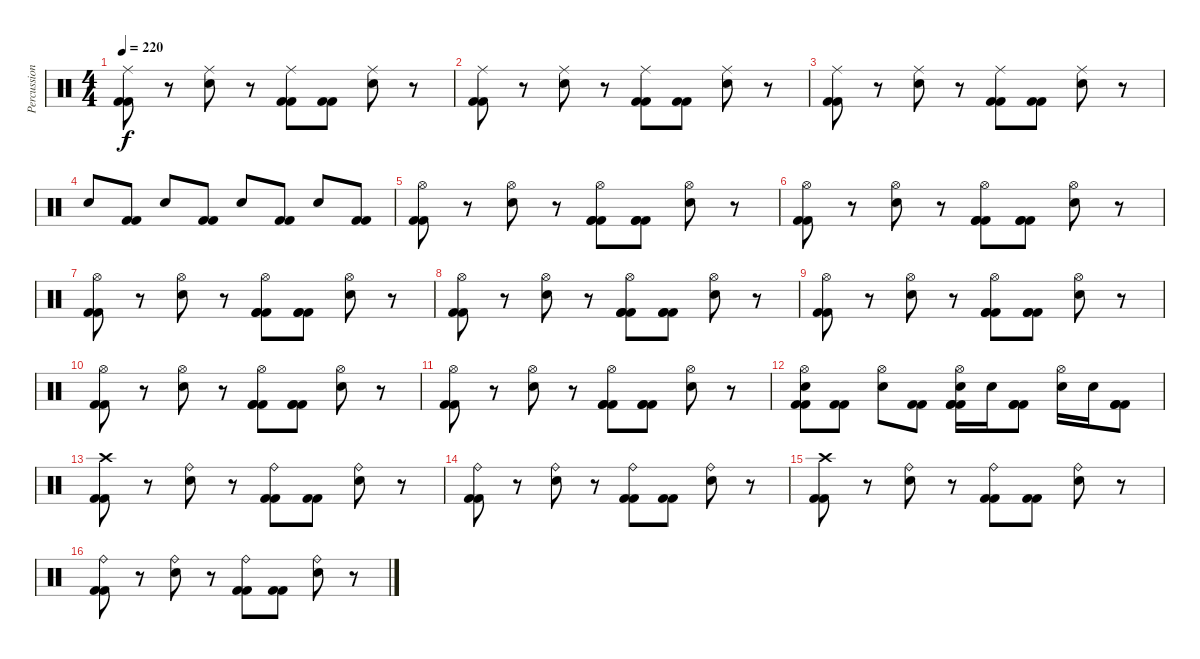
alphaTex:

\track ("Percussion" "Percussion") {instrument percussion}
\staff {score}
\articulation defaults
\ts (4 4)
\tempo 220
\clef neutral
\ks c
("Ride (middle)" "Kick (hit) 2" "Kick (hit) 2").8{dy f} r.8 ("Ride (middle)" "Electric Snare (hit)").8 r.8 ("Ride (middle)" "Kick (hit) 2" "Kick (hit) 2").8 ("Kick (hit) 2" "Kick (hit) 2").8 ("Ride (middle)" "Electric Snare (hit)").8 r.8 |
("Ride (middle)" "Kick (hit) 2" "Kick (hit) 2").8 r.8 ("Ride (middle)" "Electric Snare (hit)").8 r.8 ("Ride (middle)" "Kick (hit) 2" "Kick (hit) 2").8 ("Kick (hit) 2" "Kick (hit) 2").8 ("Ride (middle)" "Electric Snare (hit)").8 r.8 |
("Ride (middle)" "Kick (hit) 2" "Kick (hit) 2").8 r.8 ("Ride (middle)" "Electric Snare (hit)").8 r.8 ("Ride (middle)" "Kick (hit) 2" "Kick (hit) 2").8 ("Kick (hit) 2" "Kick (hit) 2").8 ("Ride (middle)" "Electric Snare (hit)").8 r.8 |
"Electric Snare (hit)".8 ("Kick (hit) 2" "Kick (hit) 2").8 "Electric Snare (hit)".8 ("Kick (hit) 2" "Kick (hit) 2").8 "Electric Snare (hit)".8 ("Kick (hit) 2" "Kick (hit) 2").8 "Electric Snare (hit)".8 ("Kick (hit) 2" "Kick (hit) 2").8 |
("Hi-Hat (open)" "Kick (hit) 2" "Kick (hit) 2").8 r.8 ("Hi-Hat (open)" "Electric Snare (hit)").8 r.8 ("Hi-Hat (open)" "Kick (hit) 2" "Kick (hit) 2" "Kick (hit) 2").8 ("Kick (hit) 2" "Kick (hit) 2" "Kick (hit) 2").8 ("Hi-Hat (open)" "Electric Snare (hit)").8 r.8 |
("Hi-Hat (open)" "Kick (hit) 2" "Kick (hit) 2").8 r.8 ("Hi-Hat (open)" "Electric Snare (hit)").8 r.8 ("Hi-Hat (open)" "Kick (hit) 2" "Kick (hit) 2" "Kick (hit) 2").8 ("Kick (hit) 2" "Kick (hit) 2" "Kick (hit) 2").8 ("Hi-Hat (open)" "Electric Snare (hit)").8 r.8 |
("Hi-Hat (open)" "Kick (hit) 2" "Kick (hit) 2").8 r.8 ("Hi-Hat (open)" "Electric Snare (hit)").8 r.8 ("Hi-Hat (open)" "Kick (hit) 2" "Kick (hit) 2" "Kick (hit) 2").8 ("Kick (hit) 2" "Kick (hit) 2" "Kick (hit) 2").8 ("Hi-Hat (open)" "Electric Snare (hit)").8 r.8 |
("Hi-Hat (open)" "Kick (hit) 2" "Kick (hit) 2").8 r.8 ("Hi-Hat (open)" "Electric Snare (hit)").8 r.8 ("Hi-Hat (open)" "Kick (hit) 2" "Kick (hit) 2" "Kick (hit) 2").8 ("Kick (hit) 2" "Kick (hit) 2" "Kick (hit) 2").8 ("Hi-Hat (open)" "Electric Snare (hit)").8 r.8 |
("Hi-Hat (open)" "Kick (hit) 2" "Kick (hit) 2").8 r.8 ("Hi-Hat (open)" "Electric Snare (hit)").8 r.8 ("Hi-Hat (open)" "Kick (hit) 2" "Kick (hit) 2" "Kick (hit) 2").8 ("Kick (hit) 2" "Kick (hit) 2" "Kick (hit) 2").8 ("Hi-Hat (open)" "Electric Snare (hit)").8 r.8 |
("Hi-Hat (open)" "Kick (hit) 2" "Kick (hit) 2").8 r.8 ("Hi-Hat (open)" "Electric Snare (hit)").8 r.8 ("Hi-Hat (open)" "Kick (hit) 2" "Kick (hit) 2" "Kick (hit) 2").8 ("Kick (hit) 2" "Kick (hit) 2" "Kick (hit) 2").8 ("Hi-Hat (open)" "Electric Snare (hit)").8 r.8 |
("Hi-Hat (open)" "Kick (hit) 2" "Kick (hit) 2").8 r.8 ("Hi-Hat (open)" "Electric Snare (hit)").8 r.8 ("Hi-Hat (open)" "Kick (hit) 2" "Kick (hit) 2" "Kick (hit) 2").8 ("Kick (hit) 2" "Kick (hit) 2" "Kick (hit) 2").8 ("Hi-Hat (open)" "Electric Snare (hit)").8 r.8 |
("Hi-Hat (open)" "Electric Snare (hit)" "Kick (hit) 2" "Kick (hit) 2").8 ("Kick (hit) 2" "Kick (hit) 2").8 ("Hi-Hat (open)" "Electric Snare (hit)").8 ("Kick (hit) 2" "Kick (hit) 2").8 ("Hi-Hat (open)" "Electric Snare (hit)" "Kick (hit) 2" "Kick (hit) 2" "Kick (hit) 2").16 "Electric Snare (hit)".16 ("Kick (hit) 2" "Kick (hit) 2" "Kick (hit) 2").8 ("Hi-Hat (open)" "Electric Snare (hit)").16 "Electric Snare (hit)".16 ("Kick (hit) 2" "Kick (hit) 2" "Kick (hit) 2").8 |
("Crash high (hit)" "Kick (hit) 2" "Kick (hit) 2").8 r.8 ("Ride (bell)" "Electric Snare (hit)").8 r.8 ("Ride (bell)" "Kick (hit) 2" "Kick (hit) 2").8 ("Kick (hit) 2" "Kick (hit) 2").8 ("Ride (bell)" "Electric Snare (hit)").8 r.8 |
("Ride (bell)" "Kick (hit) 2" "Kick (hit) 2").8 r.8 ("Ride (bell)" "Electric Snare (hit)").8 r.8 ("Ride (bell)" "Kick (hit) 2" "Kick (hit) 2").8 ("Kick (hit) 2" "Kick (hit) 2").8 ("Ride (bell)" "Electric Snare (hit)").8 r.8 |
("Crash high (hit)" "Kick (hit) 2" "Kick (hit) 2").8 r.8 ("Ride (bell)" "Electric Snare (hit)").8 r.8 ("Ride (bell)" "Kick (hit) 2" "Kick (hit) 2").8 ("Kick (hit) 2" "Kick (hit) 2").8 ("Ride (bell)" "Electric Snare (hit)").8 r.8 |
("Ride (bell)" "Kick (hit) 2" "Kick (hit) 2").8 r.8 ("Ride (bell)" "Electric Snare (hit)").8 r.8 ("Ride (bell)" "Kick (hit) 2" "Kick (hit) 2").8 ("Kick (hit) 2" "Kick (hit) 2").8 ("Ride (bell)" "Electric Snare (hit)").8 r.8
